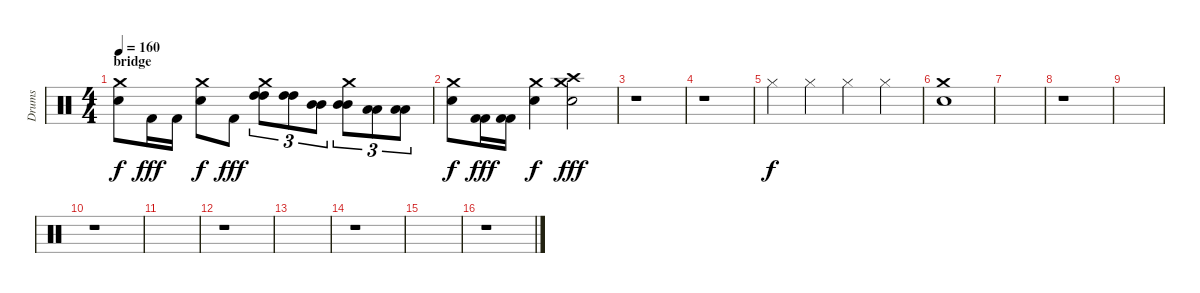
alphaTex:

\track ("Drums" "Drums") {instrument percussion}
\staff {score}
\articulation defaults
\ts (4 4)
\section ("" "bridge")
\tempo 160
\clef neutral
\ks c
("Crash medium (hit)" "Electric Snare (hit)").8{dy f} "Kick (hit) 2".16{dy fff} "Kick (hit) 2".16 ("Crash medium (hit)" "Electric Snare (hit)").8{dy f} "Kick (hit) 2".8{dy fff} ("Crash medium (hit)" "High Tom (hit)" "High Tom (hit)").8{tu (3 2)} ("High Tom (hit)" "High Tom (hit)").8{tu (3 2)} ("Mid Tom (hit)" "Mid Tom (hit)").8{tu (3 2)} ("Crash medium (hit)" "Mid Tom (hit)" "Mid Tom (hit)").8{tu (3 2)} ("Low Tom (hit)" "Low Tom (hit)").8{tu (3 2)} ("Low Tom (hit)" "Low Tom (hit)").8{tu (3 2)} |
("Electric Snare (hit)" "Crash medium (hit)").8{dy f} ("Kick (hit) 2" "Kick (hit) 2").16{dy fff} ("Kick (hit) 2" "Kick (hit) 2").16 ("Crash medium (hit)" "Electric Snare (hit)").4{dy f} ("Electric Snare (hit)" "Crash medium (hit)" "Crash high (hit)").2{dy fff} |
r.1 |
r.1 |
"Hi-Hat (closed)".4{dy f} "Hi-Hat (closed)".4 "Hi-Hat (closed)".4 "Hi-Hat (closed)".4 |
("Crash medium (hit)" "Electric Snare (hit)").1 |
|
r.1 |
|
r.1 |
|
r.1 |
|
r.1 |
|
r.1
